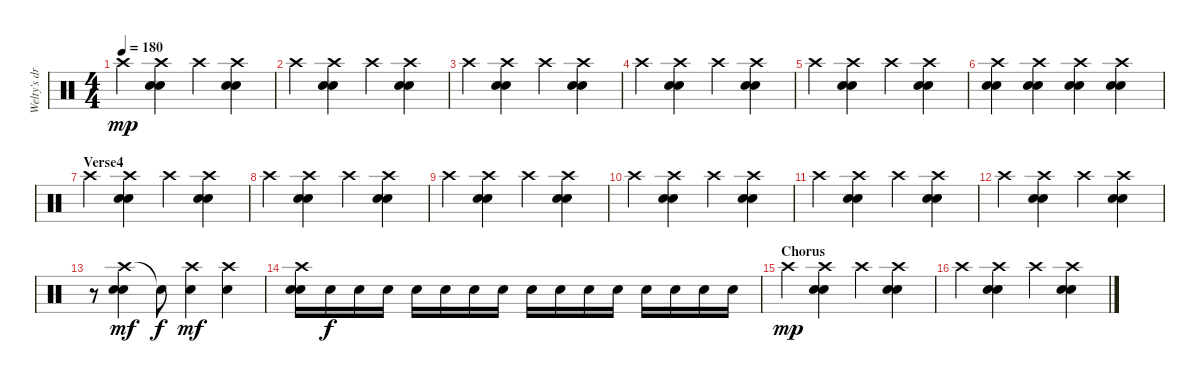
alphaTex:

\track ("Welty's drums" "Welty's dr") {instrument percussion}
\staff {score}
\articulation defaults
\ts (4 4)
\tempo 180
\clef neutral
\ks c "Crash high (hit)".4{dy mp}
("Crash high (hit)" "Electric Snare (hit)" "Electric Snare (hit)").4 "Crash high (hit)".4 ("Crash high (hit)" "Electric Snare (hit)" "Electric Snare (hit)").4 |
"Crash high (hit)".4 ("Crash high (hit)" "Electric Snare (hit)" "Electric Snare (hit)").4 "Crash high (hit)".4 ("Crash high (hit)" "Electric Snare (hit)" "Electric Snare (hit)").4 |
"Crash high (hit)".4 ("Crash high (hit)" "Electric Snare (hit)" "Electric Snare (hit)").4 "Crash high (hit)".4 ("Crash high (hit)" "Electric Snare (hit)" "Electric Snare (hit)").4 |
"Crash high (hit)".4 ("Crash high (hit)" "Electric Snare (hit)" "Electric Snare (hit)").4 "Crash high (hit)".4 ("Crash high (hit)" "Electric Snare (hit)" "Electric Snare (hit)").4 |
"Crash high (hit)".4 ("Crash high (hit)" "Electric Snare (hit)" "Electric Snare (hit)").4 "Crash high (hit)".4 ("Crash high (hit)" "Electric Snare (hit)" "Electric Snare (hit)").4 |
("Crash high (hit)" "Electric Snare (hit)" "Electric Snare (hit)").4 ("Crash high (hit)" "Electric Snare (hit)" "Electric Snare (hit)").4 ("Crash high (hit)" "Electric Snare (hit)" "Electric Snare (hit)").4 ("Crash high (hit)" "Electric Snare (hit)" "Electric Snare (hit)").4 |
\section ("" "Verse4")
"Crash high (hit)".4 ("Crash high (hit)" "Electric Snare (hit)" "Electric Snare (hit)").4 "Crash high (hit)".4 ("Crash high (hit)" "Electric Snare (hit)" "Electric Snare (hit)").4 |
"Crash high (hit)".4 ("Crash high (hit)" "Electric Snare (hit)" "Electric Snare (hit)").4 "Crash high (hit)".4 ("Crash high (hit)" "Electric Snare (hit)" "Electric Snare (hit)").4 |
"Crash high (hit)".4 ("Crash high (hit)" "Electric Snare (hit)" "Electric Snare (hit)").4 "Crash high (hit)".4 ("Crash high (hit)" "Electric Snare (hit)" "Electric Snare (hit)").4 |
"Crash high (hit)".4 ("Crash high (hit)" "Electric Snare (hit)" "Electric Snare (hit)").4 "Crash high (hit)".4 ("Crash high (hit)" "Electric Snare (hit)" "Electric Snare (hit)").4 |
"Crash high (hit)".4 ("Crash high (hit)" "Electric Snare (hit)" "Electric Snare (hit)").4 "Crash high (hit)".4 ("Crash high (hit)" "Electric Snare (hit)" "Electric Snare (hit)").4 |
"Crash high (hit)".4 ("Crash high (hit)" "Electric Snare (hit)" "Electric Snare (hit)").4 "Crash high (hit)".4 ("Crash high (hit)" "Electric Snare (hit)" "Electric Snare (hit)").4 |
r.8 ("Crash high (hit)" "Electric Snare (hit)" "Electric Snare (hit)").4{dy mf} "Snare (hit)"{t}.8{dy f} ("Crash high (hit)" "Electric Snare (hit)").4{dy mf} ("Crash high (hit)" "Electric Snare (hit)").4 |
("Crash high (hit)" "Electric Snare (hit)" "Electric Snare (hit)").16 "Electric Snare (hit)".16{dy f} "Electric Snare (hit)".16 "Electric Snare (hit)".16 "Electric Snare (hit)".16 "Electric Snare (hit)".16 "Electric Snare (hit)".16 "Electric Snare (hit)".16 "Electric Snare (hit)".16 "Electric Snare (hit)".16 "Electric Snare (hit)".16 "Electric Snare (hit)".16 "Electric Snare (hit)".16 "Electric Snare (hit)".16 "Electric Snare (hit)".16 "Electric Snare (hit)".16 |
\section ("" "Chorus")
"Crash high (hit)".4{dy mp} ("Crash high (hit)" "Electric Snare (hit)" "Electric Snare (hit)").4 "Crash high (hit)".4 ("Crash high (hit)" "Electric Snare (hit)" "Electric Snare (hit)").4 |
"Crash high (hit)".4 ("Crash high (hit)" "Electric Snare (hit)" "Electric Snare (hit)").4 "Crash high (hit)".4 ("Crash high (hit)" "Electric Snare (hit)" "Electric Snare (hit)").4
